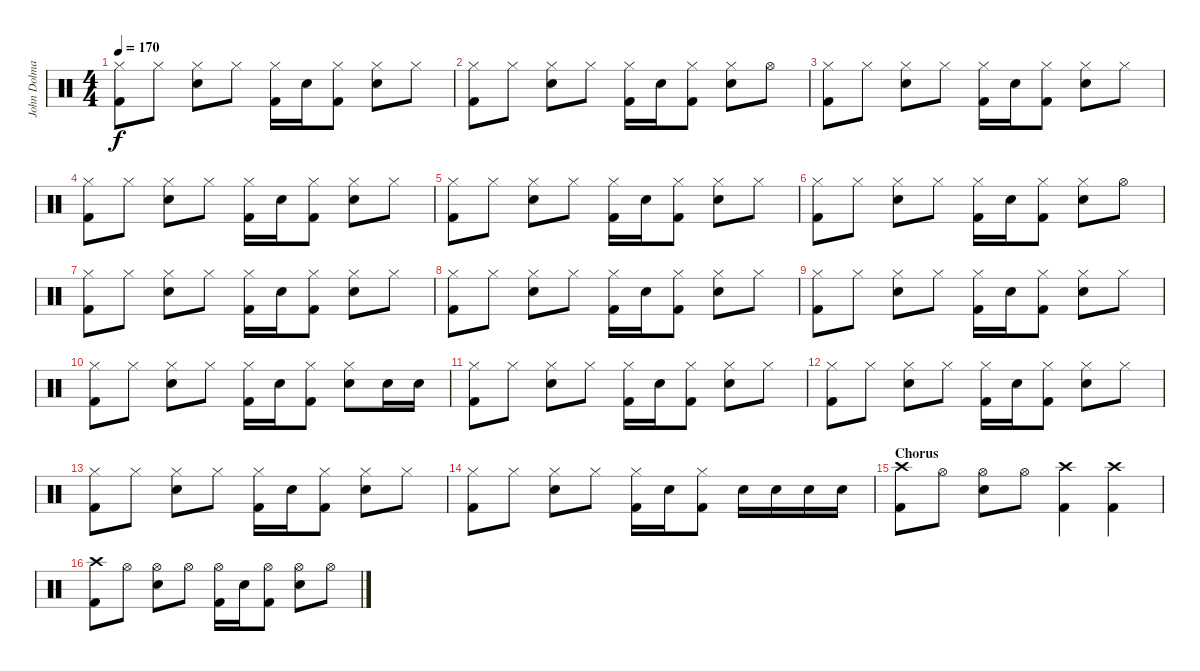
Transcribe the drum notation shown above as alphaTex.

\track ("John Dolmayan" "John Dolma") {instrument percussion}
\staff {score}
\articulation defaults
\ts (4 4)
\tempo 170
\clef neutral
\ks c
("Hi-Hat (closed)" "Kick (hit) 2").8{dy f} "Hi-Hat (closed)".8 ("Hi-Hat (closed)" "Electric Snare (hit)").8 "Hi-Hat (closed)".8 ("Hi-Hat (closed)" "Kick (hit) 2").16 "Electric Snare (hit)".16 ("Hi-Hat (closed)" "Kick (hit) 2").8 ("Hi-Hat (closed)" "Electric Snare (hit)").8 "Hi-Hat (closed)".8 |
("Hi-Hat (closed)" "Kick (hit) 2").8 "Hi-Hat (closed)".8 ("Hi-Hat (closed)" "Electric Snare (hit)").8 "Hi-Hat (closed)".8 ("Hi-Hat (closed)" "Kick (hit) 2").16 "Electric Snare (hit)".16 ("Hi-Hat (closed)" "Kick (hit) 2").8 ("Hi-Hat (closed)" "Electric Snare (hit)").8 "Hi-Hat (open)".8 |
("Hi-Hat (closed)" "Kick (hit) 2").8 "Hi-Hat (closed)".8 ("Hi-Hat (closed)" "Electric Snare (hit)").8 "Hi-Hat (closed)".8 ("Hi-Hat (closed)" "Kick (hit) 2").16 "Electric Snare (hit)".16 ("Hi-Hat (closed)" "Kick (hit) 2").8 ("Hi-Hat (closed)" "Electric Snare (hit)").8 "Hi-Hat (closed)".8 |
("Hi-Hat (closed)" "Kick (hit) 2").8 "Hi-Hat (closed)".8 ("Hi-Hat (closed)" "Electric Snare (hit)").8 "Hi-Hat (closed)".8 ("Hi-Hat (closed)" "Kick (hit) 2").16 "Electric Snare (hit)".16 ("Hi-Hat (closed)" "Kick (hit) 2").8 ("Hi-Hat (closed)" "Electric Snare (hit)").8 "Hi-Hat (closed)".8 |
("Hi-Hat (closed)" "Kick (hit) 2").8 "Hi-Hat (closed)".8 ("Hi-Hat (closed)" "Electric Snare (hit)").8 "Hi-Hat (closed)".8 ("Hi-Hat (closed)" "Kick (hit) 2").16 "Electric Snare (hit)".16 ("Hi-Hat (closed)" "Kick (hit) 2").8 ("Hi-Hat (closed)" "Electric Snare (hit)").8 "Hi-Hat (closed)".8 |
("Hi-Hat (closed)" "Kick (hit) 2").8 "Hi-Hat (closed)".8 ("Hi-Hat (closed)" "Electric Snare (hit)").8 "Hi-Hat (closed)".8 ("Hi-Hat (closed)" "Kick (hit) 2").16 "Electric Snare (hit)".16 ("Hi-Hat (closed)" "Kick (hit) 2").8 ("Hi-Hat (closed)" "Electric Snare (hit)").8 "Hi-Hat (open)".8 |
("Hi-Hat (closed)" "Kick (hit) 2").8 "Hi-Hat (closed)".8 ("Hi-Hat (closed)" "Electric Snare (hit)").8 "Hi-Hat (closed)".8 ("Hi-Hat (closed)" "Kick (hit) 2").16 "Electric Snare (hit)".16 ("Hi-Hat (closed)" "Kick (hit) 2").8 ("Hi-Hat (closed)" "Electric Snare (hit)").8 "Hi-Hat (closed)".8 |
("Hi-Hat (closed)" "Kick (hit) 2").8 "Hi-Hat (closed)".8 ("Hi-Hat (closed)" "Electric Snare (hit)").8 "Hi-Hat (closed)".8 ("Hi-Hat (closed)" "Kick (hit) 2").16 "Electric Snare (hit)".16 ("Hi-Hat (closed)" "Kick (hit) 2").8 ("Hi-Hat (closed)" "Electric Snare (hit)").8 "Hi-Hat (closed)".8 |
("Hi-Hat (closed)" "Kick (hit) 2").8 "Hi-Hat (closed)".8 ("Hi-Hat (closed)" "Electric Snare (hit)").8 "Hi-Hat (closed)".8 ("Hi-Hat (closed)" "Kick (hit) 2").16 "Electric Snare (hit)".16 ("Hi-Hat (closed)" "Kick (hit) 2").8 ("Hi-Hat (closed)" "Electric Snare (hit)").8 "Hi-Hat (closed)".8 |
("Hi-Hat (closed)" "Kick (hit) 2").8 "Hi-Hat (closed)".8 ("Hi-Hat (closed)" "Electric Snare (hit)").8 "Hi-Hat (closed)".8 ("Hi-Hat (closed)" "Kick (hit) 2").16 "Electric Snare (hit)".16 ("Hi-Hat (closed)" "Kick (hit) 2").8 ("Hi-Hat (closed)" "Electric Snare (hit)").8 "Electric Snare (hit)".16 "Electric Snare (hit)".16 |
("Hi-Hat (closed)" "Kick (hit) 2").8 "Hi-Hat (closed)".8 ("Hi-Hat (closed)" "Electric Snare (hit)").8 "Hi-Hat (closed)".8 ("Hi-Hat (closed)" "Kick (hit) 2").16 "Electric Snare (hit)".16 ("Hi-Hat (closed)" "Kick (hit) 2").8 ("Hi-Hat (closed)" "Electric Snare (hit)").8 "Hi-Hat (closed)".8 |
("Hi-Hat (closed)" "Kick (hit) 2").8 "Hi-Hat (closed)".8 ("Hi-Hat (closed)" "Electric Snare (hit)").8 "Hi-Hat (closed)".8 ("Hi-Hat (closed)" "Kick (hit) 2").16 "Electric Snare (hit)".16 ("Hi-Hat (closed)" "Kick (hit) 2").8 ("Hi-Hat (closed)" "Electric Snare (hit)").8 "Hi-Hat (closed)".8 |
("Hi-Hat (closed)" "Kick (hit) 2").8 "Hi-Hat (closed)".8 ("Hi-Hat (closed)" "Electric Snare (hit)").8 "Hi-Hat (closed)".8 ("Hi-Hat (closed)" "Kick (hit) 2").16 "Electric Snare (hit)".16 ("Hi-Hat (closed)" "Kick (hit) 2").8 ("Hi-Hat (closed)" "Electric Snare (hit)").8 "Hi-Hat (closed)".8 |
("Hi-Hat (closed)" "Kick (hit) 2").8 "Hi-Hat (closed)".8 ("Hi-Hat (closed)" "Electric Snare (hit)").8 "Hi-Hat (closed)".8 ("Hi-Hat (closed)" "Kick (hit) 2").16 "Electric Snare (hit)".16 ("Hi-Hat (closed)" "Kick (hit) 2").8 "Electric Snare (hit)".16 "Electric Snare (hit)".16 "Electric Snare (hit)".16 "Electric Snare (hit)".16 |
\section ("" "Chorus")
("Crash high (hit)" "Kick (hit) 2").8 "Hi-Hat (open)".8 ("Hi-Hat (open)" "Electric Snare (hit)").8 "Hi-Hat (open)".8 ("Crash high (hit)" "Kick (hit) 2").4 ("Crash high (hit)" "Kick (hit) 2").4 |
("Crash high (hit)" "Kick (hit) 2").8 "Hi-Hat (open)".8 ("Hi-Hat (open)" "Electric Snare (hit)").8 "Hi-Hat (open)".8 ("Hi-Hat (open)" "Kick (hit) 2").16 "Electric Snare (hit)".16 ("Hi-Hat (open)" "Kick (hit) 2").8 ("Hi-Hat (open)" "Electric Snare (hit)").8 "Hi-Hat (open)".8
